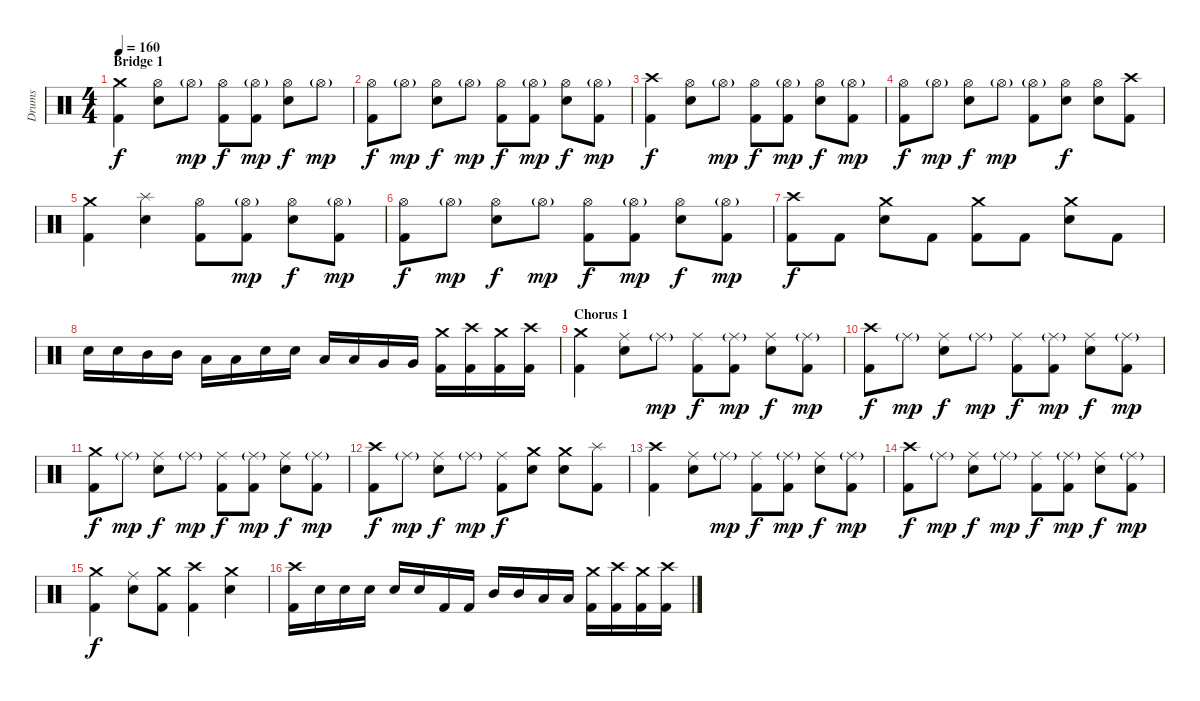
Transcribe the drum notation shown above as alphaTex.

\track ("Drums" "Drums") {instrument percussion}
\staff {score}
\articulation defaults
\ts (4 4)
\section ("" "Bridge 1")
\tempo 160
\clef neutral
\ks c
("Crash medium (hit)" "Kick (hit) 2").4{dy f} ("Hi-Hat (open)" "Snare (hit) 2").8 "Hi-Hat (open)"{g}.8{dy mp} ("Hi-Hat (open)" "Kick (hit) 2").8{dy f} ("Hi-Hat (open)"{g} "Kick (hit) 2").8{dy mp} ("Hi-Hat (open)" "Snare (hit) 2").8{dy f} "Hi-Hat (open)"{g}.8{dy mp} |
("Hi-Hat (open)" "Kick (hit) 2").8{dy f} "Hi-Hat (open)"{g}.8{dy mp} ("Hi-Hat (open)" "Snare (hit) 2").8{dy f} "Hi-Hat (open)"{g}.8{dy mp} ("Hi-Hat (open)" "Kick (hit) 2").8{dy f} ("Hi-Hat (open)"{g} "Kick (hit) 2").8{dy mp} ("Hi-Hat (open)" "Snare (hit) 2").8{dy f} ("Hi-Hat (open)"{g} "Kick (hit) 2").8{dy mp} |
("Crash high (hit)" "Kick (hit) 2").4{dy f} ("Hi-Hat (open)" "Snare (hit) 2").8 "Hi-Hat (open)"{g}.8{dy mp} ("Hi-Hat (open)" "Kick (hit) 2").8{dy f} ("Hi-Hat (open)"{g} "Kick (hit) 2").8{dy mp} ("Hi-Hat (open)" "Snare (hit) 2").8{dy f} ("Hi-Hat (open)"{g} "Kick (hit) 2").8{dy mp} |
("Hi-Hat (open)" "Kick (hit) 2").8{dy f} "Hi-Hat (open)"{g}.8{dy mp} ("Hi-Hat (open)" "Snare (hit) 2").8{dy f} "Hi-Hat (open)"{g}.8{dy mp} ("Hi-Hat (open)"{g} "Kick (hit) 2").8 ("Hi-Hat (open)" "Snare (hit) 2").8{dy f} ("Hi-Hat (open)" "Snare (hit) 2").8 ("Crash high (hit)" "Kick (hit) 2").8 |
("Crash medium (hit)" "Kick (hit) 2").4 ("Splash (hit)" "Snare (hit) 2").4 ("Hi-Hat (open)" "Kick (hit) 2").8 ("Hi-Hat (open)"{g} "Kick (hit) 2").8{dy mp} ("Hi-Hat (open)" "Snare (hit) 2").8{dy f} ("Hi-Hat (open)"{g} "Kick (hit) 2").8{dy mp} |
("Hi-Hat (open)" "Kick (hit) 2").8{dy f} "Hi-Hat (open)"{g}.8{dy mp} ("Hi-Hat (open)" "Snare (hit) 2").8{dy f} "Hi-Hat (open)"{g}.8{dy mp} ("Hi-Hat (open)" "Kick (hit) 2").8{dy f} ("Hi-Hat (open)"{g} "Kick (hit) 2").8{dy mp} ("Hi-Hat (open)" "Snare (hit) 2").8{dy f} ("Hi-Hat (open)"{g} "Kick (hit) 2").8{dy mp} |
("Crash high (hit)" "Kick (hit) 2").8{dy f} "Kick (hit) 2".8 ("Crash medium (hit)" "Snare (hit) 2").8 "Kick (hit) 2".8 ("Crash medium (hit)" "Kick (hit) 2").8 "Kick (hit) 2".8 ("Crash medium (hit)" "Snare (hit) 2").8 "Kick (hit) 2".8 |
"Snare (hit) 2".16 "Snare (hit) 2".16 "Mid Tom (hit)".16 "Mid Tom (hit)".16 "Low Tom (hit)".16 "Low Tom (hit)".16 "Snare (hit) 2".16 "Snare (hit) 2".16 "Low Tom (hit)".16 "Low Tom (hit)".16 "Very Low Tom (hit)".16 "Very Low Tom (hit)".16 ("Crash medium (hit)" "Kick (hit) 2").16 ("Crash high (hit)" "Kick (hit) 2").16 ("Crash medium (hit)" "Kick (hit) 2").16 ("Crash high (hit)" "Kick (hit) 2").16 |
\section ("" "Chorus 1")
("Crash medium (hit)" "Kick (hit) 2").4 ("Ride (middle)" "Snare (hit) 2").8 "Ride (middle)"{g}.8{dy mp} ("Ride (middle)" "Kick (hit) 2").8{dy f} ("Ride (middle)"{g} "Kick (hit) 2").8{dy mp} ("Ride (middle)" "Snare (hit) 2").8{dy f} ("Ride (middle)"{g} "Kick (hit) 2").8{dy mp} |
("Crash high (hit)" "Kick (hit) 2").8{dy f} "Ride (middle)"{g}.8{dy mp} ("Ride (middle)" "Snare (hit) 2").8{dy f} "Ride (middle)"{g}.8{dy mp} ("Ride (middle)" "Kick (hit) 2").8{dy f} ("Ride (middle)"{g} "Kick (hit) 2").8{dy mp} ("Ride (middle)" "Snare (hit) 2").8{dy f} ("Ride (middle)"{g} "Kick (hit) 2").8{dy mp} |
("Crash medium (hit)" "Kick (hit) 2").8{dy f} "Ride (middle)"{g}.8{dy mp} ("Ride (middle)" "Snare (hit) 2").8{dy f} "Ride (middle)"{g}.8{dy mp} ("Ride (middle)" "Kick (hit) 2").8{dy f} ("Ride (middle)"{g} "Kick (hit) 2").8{dy mp} ("Ride (middle)" "Snare (hit) 2").8{dy f} ("Ride (middle)"{g} "Kick (hit) 2").8{dy mp} |
("Crash high (hit)" "Kick (hit) 2").8{dy f} "Ride (middle)"{g}.8{dy mp} ("Ride (middle)" "Snare (hit) 2").8{dy f} "Ride (middle)"{g}.8{dy mp} ("Ride (middle)" "Kick (hit) 2").8{dy f} ("Crash medium (hit)" "Snare (hit) 2").8 ("Crash medium (hit)" "Snare (hit) 2").8 ("Splash (hit)" "Kick (hit) 2").8 |
("Crash high (hit)" "Kick (hit) 2").4 ("Ride (middle)" "Snare (hit) 2").8 "Ride (middle)"{g}.8{dy mp} ("Ride (middle)" "Kick (hit) 2").8{dy f} ("Ride (middle)"{g} "Kick (hit) 2").8{dy mp} ("Ride (middle)" "Snare (hit) 2").8{dy f} ("Ride (middle)"{g} "Kick (hit) 2").8{dy mp} |
("Crash high (hit)" "Kick (hit) 2").8{dy f} "Ride (middle)"{g}.8{dy mp} ("Ride (middle)" "Snare (hit) 2").8{dy f} "Ride (middle)"{g}.8{dy mp} ("Ride (middle)" "Kick (hit) 2").8{dy f} ("Ride (middle)"{g} "Kick (hit) 2").8{dy mp} ("Ride (middle)" "Snare (hit) 2").8{dy f} ("Ride (middle)"{g} "Kick (hit) 2").8{dy mp} |
("Crash medium (hit)" "Kick (hit) 2").4{dy f} ("Ride (middle)" "Snare (hit) 2").8 ("Crash medium (hit)" "Kick (hit) 2").8 ("Crash high (hit)" "Kick (hit) 2").4 ("Crash medium (hit)" "Snare (hit) 2").4 |
("Crash high (hit)" "Kick (hit) 2").16 "Snare (hit) 2".16 "Snare (hit) 2".16 "Snare (hit) 2".16 "Snare (hit) 2".16 "Snare (hit) 2".16 "Kick (hit) 2".16 "Kick (hit) 2".16 "Mid Tom (hit)".16 "Mid Tom (hit)".16 "Low Tom (hit)".16 "Low Tom (hit)".16 ("Crash medium (hit)" "Kick (hit) 2").16 ("Crash high (hit)" "Kick (hit) 2").16 ("Crash medium (hit)" "Kick (hit) 2").16 ("Crash high (hit)" "Kick (hit) 2").16
